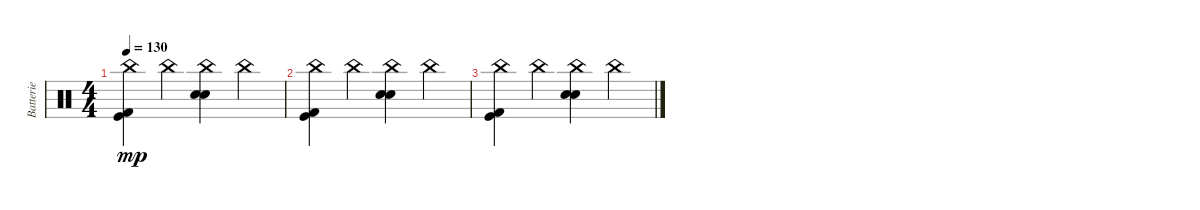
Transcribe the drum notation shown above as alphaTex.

\track ("Batterie" "Batterie") {instrument percussion}
\staff {score}
\articulation defaults
\ts (4 4)
\tempo 130
\clef neutral
\ks c
("China (hit)" "Kick (hit) 2" "Kick (hit)").4{dy mp} "China (hit)".4 ("China (hit)" "Electric Snare (hit)" "Electric Snare (hit)").4 "China (hit)".4 |
("China (hit)" "Kick (hit) 2" "Kick (hit)").4 "China (hit)".4 ("China (hit)" "Electric Snare (hit)" "Electric Snare (hit)").4 "China (hit)".4 |
("China (hit)" "Kick (hit) 2" "Kick (hit)").4 "China (hit)".4 ("China (hit)" "Electric Snare (hit)" "Electric Snare (hit)").4 "China (hit)".4
